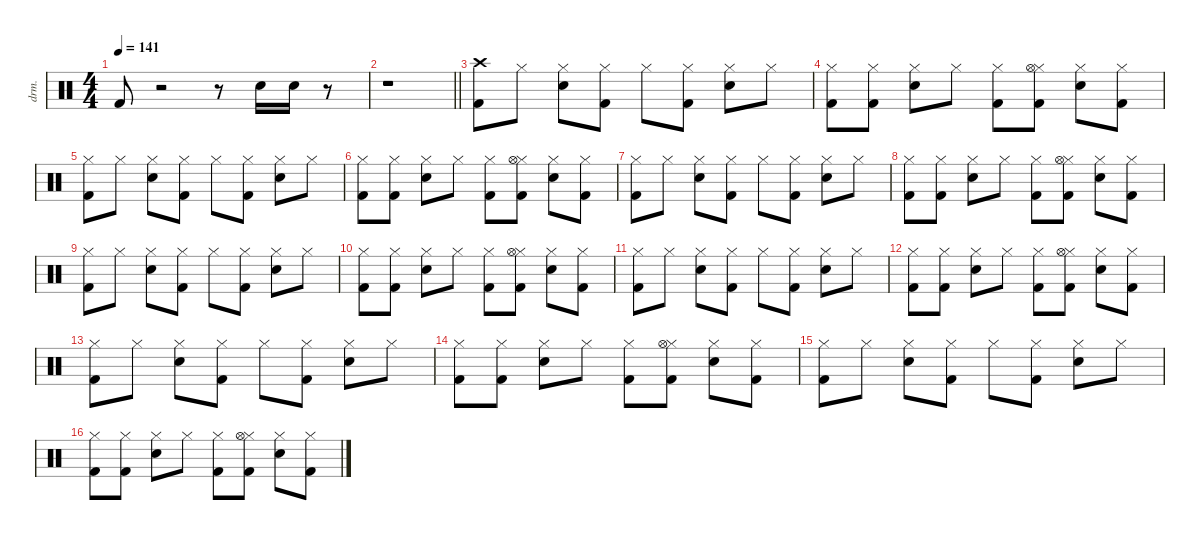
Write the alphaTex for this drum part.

\defaultSystemsLayout 4
\hideDynamics
\bracketExtendMode nobrackets
\otherSystemsTrackNameOrientation horizontal
\track ("Drum" "drm.") {instrument percussion}
\staff {score}
\articulation defaults
\ts (4 4)
\tempo 141
\clef neutral
\ks c "Kick (hit) 2".8{dy fff beam Up}
r.2{beam Up} r.8{beam Up} "Snare (hit) 2".16{beam Down} "Snare (hit) 2".16{beam Down} r.8{beam Down} |
\barLineRight lightlight
r.1{beam Down} |
("Crash high (hit)" "Kick (hit) 2").8{beam Down} "Hi-Hat (closed)".8{dy f beam Down} ("Hi-Hat (closed)" "Snare (hit) 2").8{dy fff beam Down} ("Hi-Hat (closed)" "Kick (hit) 2").8{beam Down} "Hi-Hat (closed)".8{beam Down} ("Hi-Hat (closed)" "Kick (hit) 2").8{beam Down} ("Hi-Hat (closed)" "Snare (hit) 2").8{beam Down} "Hi-Hat (closed)".8{dy f beam Down} |
("Hi-Hat (closed)" "Kick (hit) 2").8{dy fff beam Down} ("Hi-Hat (closed)" "Kick (hit) 2").8{dy f beam Down} ("Hi-Hat (closed)" "Snare (hit) 2").8{dy fff beam Down} "Hi-Hat (closed)".8{dy f beam Down} ("Hi-Hat (closed)" "Kick (hit) 2").8{dy fff beam Down} ("Hi-Hat (closed)" "Kick (hit) 2" "Hi-Hat (open)").8{beam Down} ("Hi-Hat (closed)" "Snare (hit) 2").8{beam Down} ("Hi-Hat (closed)" "Kick (hit) 2").8{beam Down} |
("Hi-Hat (closed)" "Kick (hit) 2").8{beam Down} "Hi-Hat (closed)".8{dy f beam Down} ("Snare (hit) 2" "Hi-Hat (closed)").8{beam Down} ("Kick (hit) 2" "Hi-Hat (closed)").8{beam Down} "Hi-Hat (closed)".8{beam Down} ("Kick (hit) 2" "Hi-Hat (closed)").8{beam Down} ("Snare (hit) 2" "Hi-Hat (closed)").8{beam Down} "Hi-Hat (closed)".8{beam Down} |
("Hi-Hat (closed)" "Kick (hit) 2").8{dy fff beam Down} ("Hi-Hat (closed)" "Kick (hit) 2").8{dy f beam Down} ("Hi-Hat (closed)" "Snare (hit) 2").8{dy fff beam Down} "Hi-Hat (closed)".8{dy f beam Down} ("Kick (hit) 2" "Hi-Hat (closed)").8{dy fff beam Down} ("Hi-Hat (closed)" "Hi-Hat (open)" "Kick (hit) 2").8{dy f beam Down} ("Hi-Hat (closed)" "Snare (hit) 2").8{dy fff beam Down} ("Hi-Hat (closed)" "Kick (hit) 2").8{dy f beam Down} |
("Hi-Hat (closed)" "Kick (hit) 2").8{dy fff beam Down} "Hi-Hat (closed)".8{dy f beam Down} ("Hi-Hat (closed)" "Snare (hit) 2").8{dy fff beam Down} ("Hi-Hat (closed)" "Kick (hit) 2").8{beam Down} "Hi-Hat (closed)".8{beam Down} ("Hi-Hat (closed)" "Kick (hit) 2").8{beam Down} ("Hi-Hat (closed)" "Snare (hit) 2").8{beam Down} "Hi-Hat (closed)".8{dy f beam Down} |
("Hi-Hat (closed)" "Kick (hit) 2").8{dy fff beam Down} ("Hi-Hat (closed)" "Kick (hit) 2").8{beam Down} ("Hi-Hat (closed)" "Snare (hit) 2").8{beam Down} "Hi-Hat (closed)".8{dy f beam Down} ("Hi-Hat (closed)" "Kick (hit) 2").8{dy fff beam Down} ("Hi-Hat (closed)" "Kick (hit) 2" "Hi-Hat (open)").8{beam Down} ("Hi-Hat (closed)" "Snare (hit) 2").8{beam Down} ("Hi-Hat (closed)" "Kick (hit) 2").8{dy f beam Down} |
("Hi-Hat (closed)" "Kick (hit) 2").8{dy fff beam Down} "Hi-Hat (closed)".8{dy f beam Down} ("Hi-Hat (closed)" "Snare (hit) 2").8{dy fff beam Down} ("Hi-Hat (closed)" "Kick (hit) 2").8{beam Down} "Hi-Hat (closed)".8{beam Down} ("Hi-Hat (closed)" "Kick (hit) 2").8{dy f beam Down} ("Hi-Hat (closed)" "Snare (hit) 2").8{dy fff beam Down} "Hi-Hat (closed)".8{dy f beam Down} |
("Hi-Hat (closed)" "Kick (hit) 2").8{dy fff beam Down} ("Hi-Hat (closed)" "Kick (hit) 2").8{beam Down} ("Hi-Hat (closed)" "Snare (hit) 2").8{beam Down} "Hi-Hat (closed)".8{dy f beam Down} ("Hi-Hat (closed)" "Kick (hit) 2").8{dy fff beam Down} ("Hi-Hat (closed)" "Kick (hit) 2" "Hi-Hat (open)").8{beam Down} ("Hi-Hat (closed)" "Snare (hit) 2").8{beam Down} ("Hi-Hat (closed)" "Kick (hit) 2").8{beam Down} |
("Hi-Hat (closed)" "Kick (hit) 2").8{beam Down} "Hi-Hat (closed)".8{dy f beam Down} ("Hi-Hat (closed)" "Snare (hit) 2").8{dy fff beam Down} ("Hi-Hat (closed)" "Kick (hit) 2").8{beam Down} "Hi-Hat (closed)".8{beam Down} ("Hi-Hat (closed)" "Kick (hit) 2").8{dy f beam Down} ("Hi-Hat (closed)" "Snare (hit) 2").8{dy fff beam Down} "Hi-Hat (closed)".8{dy f beam Down} |
("Hi-Hat (closed)" "Kick (hit) 2").8{dy fff beam Down} ("Hi-Hat (closed)" "Kick (hit) 2").8{beam Down} ("Hi-Hat (closed)" "Snare (hit) 2").8{beam Down} "Hi-Hat (closed)".8{dy f beam Down} ("Hi-Hat (closed)" "Kick (hit) 2").8{dy fff beam Down} ("Hi-Hat (closed)" "Kick (hit) 2" "Hi-Hat (open)").8{beam Down} ("Hi-Hat (closed)" "Snare (hit) 2").8{beam Down} ("Hi-Hat (closed)" "Kick (hit) 2").8{beam Down} |
("Hi-Hat (closed)" "Kick (hit) 2").8{beam Down} "Hi-Hat (closed)".8{dy f beam Down} ("Hi-Hat (closed)" "Snare (hit) 2").8{dy fff beam Down} ("Hi-Hat (closed)" "Kick (hit) 2").8{beam Down} "Hi-Hat (closed)".8{beam Down} ("Hi-Hat (closed)" "Kick (hit) 2").8{dy f beam Down} ("Hi-Hat (closed)" "Snare (hit) 2").8{dy fff beam Down} "Hi-Hat (closed)".8{dy f beam Down} |
("Hi-Hat (closed)" "Kick (hit) 2").8{dy fff beam Down} ("Hi-Hat (closed)" "Kick (hit) 2").8{beam Down} ("Hi-Hat (closed)" "Snare (hit) 2").8{beam Down} "Hi-Hat (closed)".8{dy f beam Down} ("Hi-Hat (closed)" "Kick (hit) 2").8{dy fff beam Down} ("Hi-Hat (closed)" "Kick (hit) 2" "Hi-Hat (open)").8{beam Down} ("Hi-Hat (closed)" "Snare (hit) 2").8{beam Down} ("Hi-Hat (closed)" "Kick (hit) 2").8{beam Down} |
("Hi-Hat (closed)" "Kick (hit) 2").8{beam Down} "Hi-Hat (closed)".8{dy f beam Down} ("Hi-Hat (closed)" "Snare (hit) 2").8{dy fff beam Down} ("Hi-Hat (closed)" "Kick (hit) 2").8{beam Down} "Hi-Hat (closed)".8{beam Down} ("Hi-Hat (closed)" "Kick (hit) 2").8{dy f beam Down} ("Hi-Hat (closed)" "Snare (hit) 2").8{dy fff beam Down} "Hi-Hat (closed)".8{dy f beam Down} |
("Hi-Hat (closed)" "Kick (hit) 2").8{dy fff beam Down} ("Hi-Hat (closed)" "Kick (hit) 2").8{beam Down} ("Hi-Hat (closed)" "Snare (hit) 2").8{beam Down} "Hi-Hat (closed)".8{dy f beam Down} ("Hi-Hat (closed)" "Kick (hit) 2").8{dy fff beam Down} ("Hi-Hat (closed)" "Kick (hit) 2" "Hi-Hat (open)").8{beam Down} ("Hi-Hat (closed)" "Snare (hit) 2").8{beam Down} ("Hi-Hat (closed)" "Kick (hit) 2").8{beam Down}
